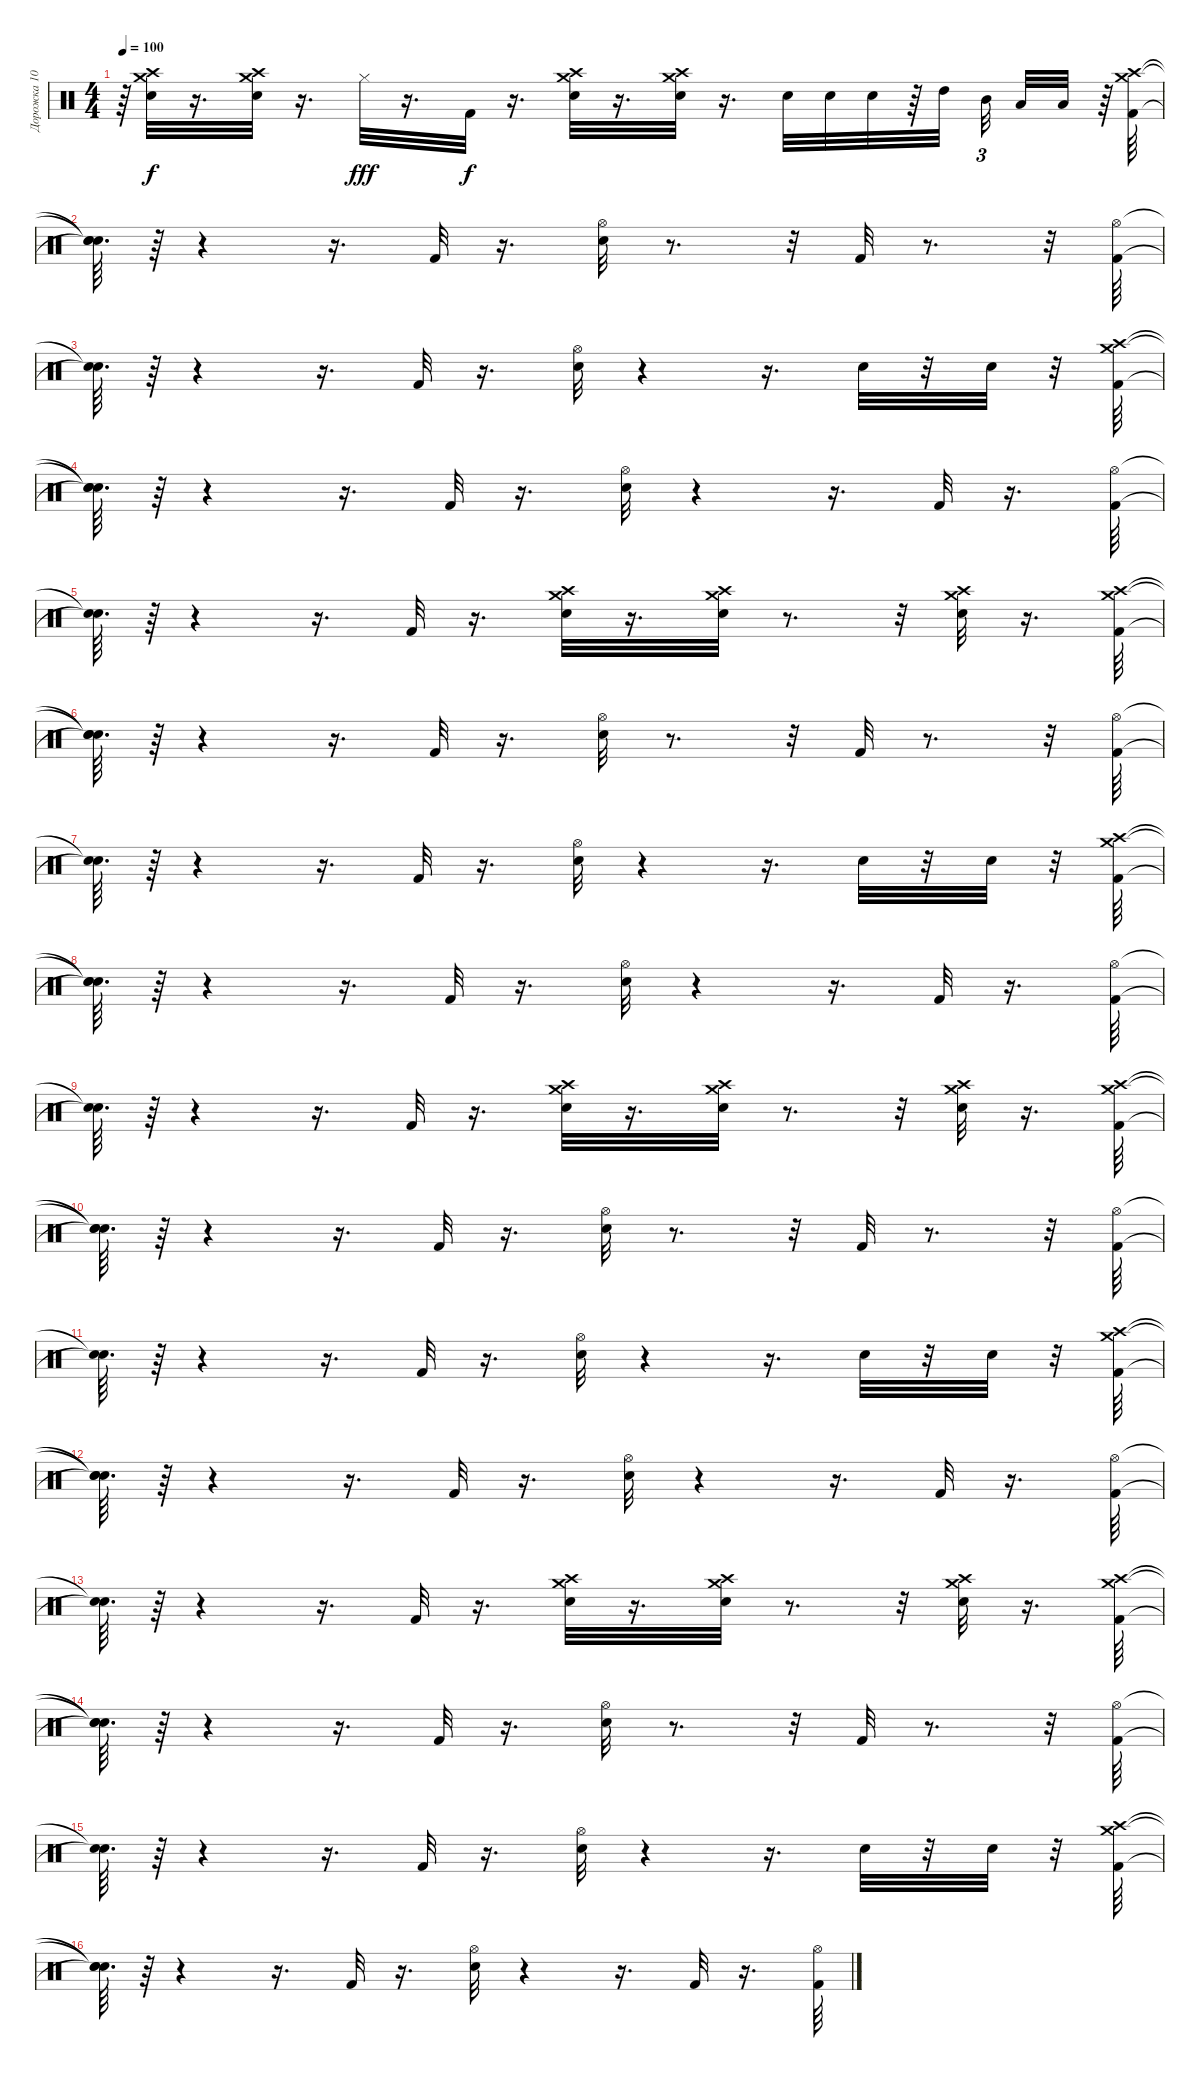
\track ("Дорожка 10" "Дорожка 10") {instrument percussion}
\staff {score}
\articulation defaults
\ts (4 4)
\tempo 100
\clef neutral
\ks c
r.64{dy f} ("Crash high (hit)" "Crash medium (hit)" "Snare (hit) 2").32 r.16{d} ("Crash high (hit)" "Crash medium (hit)" "Snare (hit) 2").32 r.16{d} "Hi-Hat (closed)".32{dy fff} r.16{d} "Kick (hit) 2".32{dy f} r.16{d} ("Crash medium (hit)" "Crash high (hit)" "Snare (hit) 2").32 r.16{d} ("Crash high (hit)" "Crash medium (hit)" "Snare (hit) 2").32 r.16{d} "Snare (hit) 2".32 "Snare (hit) 2".32 "Snare (hit) 2".32 r.64 "High Tom (hit)".32 "Mid Tom (hit)".32{tu (3 2)} "Low Tom (hit)".32 "Low Tom (hit)".32 r.64 ("Crash medium (hit)" "Crash high (hit)" "Kick (hit) 2").64 |
("Snare (hit)"{t} "Snare (hit)"{t} "Snare (hit)"{t}).64{d} r.64 r.4 r.16{d} "Kick (hit) 2".32 r.16{d} ("Snare (hit) 2" "Hi-Hat (open)").32 r.8{d} r.32 "Kick (hit) 2".32 r.8{d} r.32 ("Hi-Hat (open)" "Kick (hit) 2").64 |
("Snare (hit)"{t} "Snare (hit)"{t}).64{d} r.64 r.4 r.16{d} "Kick (hit) 2".32 r.16{d} ("Snare (hit) 2" "Hi-Hat (open)").32 r.4 r.16{d} "Snare (hit) 2".32 r.32 "Snare (hit) 2".32 r.32 ("Crash high (hit)" "Crash medium (hit)" "Kick (hit) 2").64 |
("Snare (hit)"{t} "Snare (hit)"{t} "Snare (hit)"{t}).64{d} r.64 r.4 r.16{d} "Kick (hit) 2".32 r.16{d} ("Hi-Hat (open)" "Snare (hit) 2").32 r.4 r.16{d} "Kick (hit) 2".32 r.16{d} ("Hi-Hat (open)" "Kick (hit) 2").64 |
("Snare (hit)"{t} "Snare (hit)"{t}).64{d} r.64 r.4 r.16{d} "Kick (hit) 2".32 r.16{d} ("Crash high (hit)" "Crash medium (hit)" "Snare (hit) 2").32 r.16{d} ("Crash high (hit)" "Crash medium (hit)" "Snare (hit) 2").32 r.8{d} r.32 ("Crash medium (hit)" "Crash high (hit)" "Snare (hit) 2").32 r.16{d} ("Crash medium (hit)" "Crash high (hit)" "Kick (hit) 2").64 |
("Snare (hit)"{t} "Snare (hit)"{t} "Snare (hit)"{t}).64{d} r.64 r.4 r.16{d} "Kick (hit) 2".32 r.16{d} ("Snare (hit) 2" "Hi-Hat (open)").32 r.8{d} r.32 "Kick (hit) 2".32 r.8{d} r.32 ("Hi-Hat (open)" "Kick (hit) 2").64 |
("Snare (hit)"{t} "Snare (hit)"{t}).64{d} r.64 r.4 r.16{d} "Kick (hit) 2".32 r.16{d} ("Snare (hit) 2" "Hi-Hat (open)").32 r.4 r.16{d} "Snare (hit) 2".32 r.32 "Snare (hit) 2".32 r.32 ("Crash high (hit)" "Crash medium (hit)" "Kick (hit) 2").64 |
("Snare (hit)"{t} "Snare (hit)"{t} "Snare (hit)"{t}).64{d} r.64 r.4 r.16{d} "Kick (hit) 2".32 r.16{d} ("Hi-Hat (open)" "Snare (hit) 2").32 r.4 r.16{d} "Kick (hit) 2".32 r.16{d} ("Hi-Hat (open)" "Kick (hit) 2").64 |
("Snare (hit)"{t} "Snare (hit)"{t}).64{d} r.64 r.4 r.16{d} "Kick (hit) 2".32 r.16{d} ("Crash high (hit)" "Crash medium (hit)" "Snare (hit) 2").32 r.16{d} ("Crash high (hit)" "Crash medium (hit)" "Snare (hit) 2").32 r.8{d} r.32 ("Crash medium (hit)" "Crash high (hit)" "Snare (hit) 2").32 r.16{d} ("Crash medium (hit)" "Crash high (hit)" "Kick (hit) 2").64 |
("Snare (hit)"{t} "Snare (hit)"{t} "Snare (hit)"{t}).64{d} r.64 r.4 r.16{d} "Kick (hit) 2".32 r.16{d} ("Snare (hit) 2" "Hi-Hat (open)").32 r.8{d} r.32 "Kick (hit) 2".32 r.8{d} r.32 ("Hi-Hat (open)" "Kick (hit) 2").64 |
("Snare (hit)"{t} "Snare (hit)"{t}).64{d} r.64 r.4 r.16{d} "Kick (hit) 2".32 r.16{d} ("Snare (hit) 2" "Hi-Hat (open)").32 r.4 r.16{d} "Snare (hit) 2".32 r.32 "Snare (hit) 2".32 r.32 ("Crash high (hit)" "Crash medium (hit)" "Kick (hit) 2").64 |
("Snare (hit)"{t} "Snare (hit)"{t} "Snare (hit)"{t}).64{d} r.64 r.4 r.16{d} "Kick (hit) 2".32 r.16{d} ("Hi-Hat (open)" "Snare (hit) 2").32 r.4 r.16{d} "Kick (hit) 2".32 r.16{d} ("Hi-Hat (open)" "Kick (hit) 2").64 |
("Snare (hit)"{t} "Snare (hit)"{t}).64{d} r.64 r.4 r.16{d} "Kick (hit) 2".32 r.16{d} ("Crash high (hit)" "Crash medium (hit)" "Snare (hit) 2").32 r.16{d} ("Crash high (hit)" "Crash medium (hit)" "Snare (hit) 2").32 r.8{d} r.32 ("Crash medium (hit)" "Crash high (hit)" "Snare (hit) 2").32 r.16{d} ("Crash medium (hit)" "Crash high (hit)" "Kick (hit) 2").64 |
("Snare (hit)"{t} "Snare (hit)"{t} "Snare (hit)"{t}).64{d} r.64 r.4 r.16{d} "Kick (hit) 2".32 r.16{d} ("Snare (hit) 2" "Hi-Hat (open)").32 r.8{d} r.32 "Kick (hit) 2".32 r.8{d} r.32 ("Hi-Hat (open)" "Kick (hit) 2").64 |
("Snare (hit)"{t} "Snare (hit)"{t}).64{d} r.64 r.4 r.16{d} "Kick (hit) 2".32 r.16{d} ("Snare (hit) 2" "Hi-Hat (open)").32 r.4 r.16{d} "Snare (hit) 2".32 r.32 "Snare (hit) 2".32 r.32 ("Crash high (hit)" "Crash medium (hit)" "Kick (hit) 2").64 |
("Snare (hit)"{t} "Snare (hit)"{t} "Snare (hit)"{t}).64{d} r.64 r.4 r.16{d} "Kick (hit) 2".32 r.16{d} ("Hi-Hat (open)" "Snare (hit) 2").32 r.4 r.16{d} "Kick (hit) 2".32 r.16{d} ("Hi-Hat (open)" "Kick (hit) 2").64
